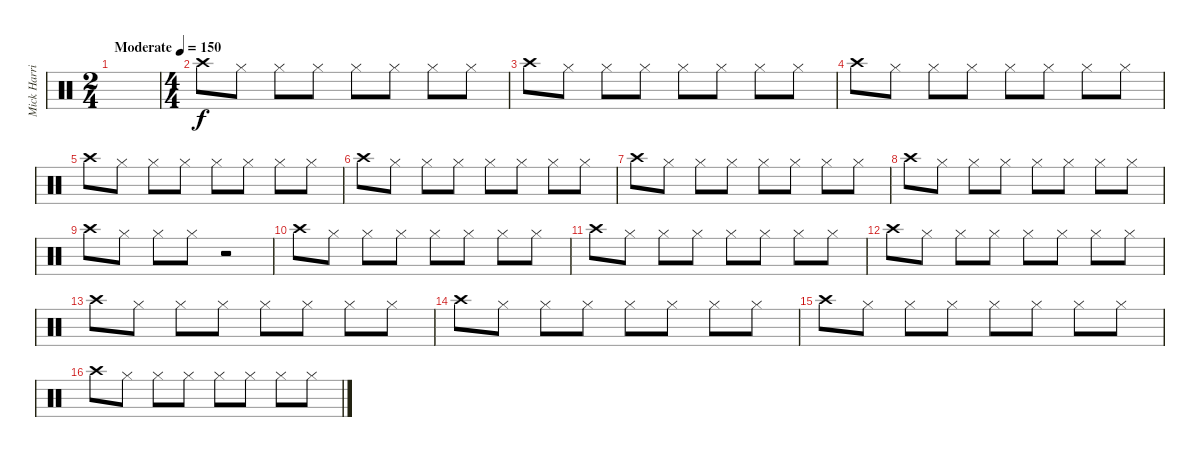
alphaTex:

\track ("Mick Harris" "Mick Harri") {instrument percussion}
\staff {score}
\articulation defaults
\ts (2 4)
\tempo (150 "Moderate")
\clef neutral
\ks c
|
\ts (4 4)
"Crash high (hit)".8{beam Down} "Hi-Hat (closed)".8{beam Down} "Hi-Hat (closed)".8{beam Down} "Hi-Hat (closed)".8{beam Down} "Hi-Hat (closed)".8{beam Down} "Hi-Hat (closed)".8{beam Down} "Hi-Hat (closed)".8{beam Down} "Hi-Hat (closed)".8{beam Down} |
"Crash high (hit)".8{beam Down} "Hi-Hat (closed)".8{beam Down} "Hi-Hat (closed)".8{beam Down} "Hi-Hat (closed)".8{beam Down} "Hi-Hat (closed)".8{beam Down} "Hi-Hat (closed)".8{beam Down} "Hi-Hat (closed)".8{beam Down} "Hi-Hat (closed)".8{beam Down} |
"Crash high (hit)".8{beam Down} "Hi-Hat (closed)".8{beam Down} "Hi-Hat (closed)".8{beam Down} "Hi-Hat (closed)".8{beam Down} "Hi-Hat (closed)".8{beam Down} "Hi-Hat (closed)".8{beam Down} "Hi-Hat (closed)".8{beam Down} "Hi-Hat (closed)".8{beam Down} |
"Crash high (hit)".8{beam Down} "Hi-Hat (closed)".8{beam Down} "Hi-Hat (closed)".8{beam Down} "Hi-Hat (closed)".8{beam Down} "Hi-Hat (closed)".8{beam Down} "Hi-Hat (closed)".8{beam Down} "Hi-Hat (closed)".8{beam Down} "Hi-Hat (closed)".8{beam Down} |
"Crash high (hit)".8{beam Down} "Hi-Hat (closed)".8{beam Down} "Hi-Hat (closed)".8{beam Down} "Hi-Hat (closed)".8{beam Down} "Hi-Hat (closed)".8{beam Down} "Hi-Hat (closed)".8{beam Down} "Hi-Hat (closed)".8{beam Down} "Hi-Hat (closed)".8{beam Down} |
"Crash high (hit)".8{beam Down} "Hi-Hat (closed)".8{beam Down} "Hi-Hat (closed)".8{beam Down} "Hi-Hat (closed)".8{beam Down} "Hi-Hat (closed)".8{beam Down} "Hi-Hat (closed)".8{beam Down} "Hi-Hat (closed)".8{beam Down} "Hi-Hat (closed)".8{beam Down} |
"Crash high (hit)".8{beam Down} "Hi-Hat (closed)".8{beam Down} "Hi-Hat (closed)".8{beam Down} "Hi-Hat (closed)".8{beam Down} "Hi-Hat (closed)".8{beam Down} "Hi-Hat (closed)".8{beam Down} "Hi-Hat (closed)".8{beam Down} "Hi-Hat (closed)".8{beam Down} |
"Crash high (hit)".8{beam Down} "Hi-Hat (closed)".8{beam Down} "Hi-Hat (closed)".8{beam Down} "Hi-Hat (closed)".8{beam Down} r.2{beam Up} |
"Crash high (hit)".8{beam Down} "Hi-Hat (closed)".8{beam Down} "Hi-Hat (closed)".8{beam Down} "Hi-Hat (closed)".8{beam Down} "Hi-Hat (closed)".8{beam Down} "Hi-Hat (closed)".8{beam Down} "Hi-Hat (closed)".8{beam Down} "Hi-Hat (closed)".8{beam Down} |
"Crash high (hit)".8{beam Down} "Hi-Hat (closed)".8{beam Down} "Hi-Hat (closed)".8{beam Down} "Hi-Hat (closed)".8{beam Down} "Hi-Hat (closed)".8{beam Down} "Hi-Hat (closed)".8{beam Down} "Hi-Hat (closed)".8{beam Down} "Hi-Hat (closed)".8{beam Down} |
"Crash high (hit)".8{beam Down} "Hi-Hat (closed)".8{beam Down} "Hi-Hat (closed)".8{beam Down} "Hi-Hat (closed)".8{beam Down} "Hi-Hat (closed)".8{beam Down} "Hi-Hat (closed)".8{beam Down} "Hi-Hat (closed)".8{beam Down} "Hi-Hat (closed)".8{beam Down} |
"Crash high (hit)".8{beam Down} "Hi-Hat (closed)".8{beam Down} "Hi-Hat (closed)".8{beam Down} "Hi-Hat (closed)".8{beam Down} "Hi-Hat (closed)".8{beam Down} "Hi-Hat (closed)".8{beam Down} "Hi-Hat (closed)".8{beam Down} "Hi-Hat (closed)".8{beam Down} |
"Crash high (hit)".8{beam Down} "Hi-Hat (closed)".8{beam Down} "Hi-Hat (closed)".8{beam Down} "Hi-Hat (closed)".8{beam Down} "Hi-Hat (closed)".8{beam Down} "Hi-Hat (closed)".8{beam Down} "Hi-Hat (closed)".8{beam Down} "Hi-Hat (closed)".8{beam Down} |
"Crash high (hit)".8{beam Down} "Hi-Hat (closed)".8{beam Down} "Hi-Hat (closed)".8{beam Down} "Hi-Hat (closed)".8{beam Down} "Hi-Hat (closed)".8{beam Down} "Hi-Hat (closed)".8{beam Down} "Hi-Hat (closed)".8{beam Down} "Hi-Hat (closed)".8{beam Down} |
"Crash high (hit)".8{beam Down} "Hi-Hat (closed)".8{beam Down} "Hi-Hat (closed)".8{beam Down} "Hi-Hat (closed)".8{beam Down} "Hi-Hat (closed)".8{beam Down} "Hi-Hat (closed)".8{beam Down} "Hi-Hat (closed)".8{beam Down} "Hi-Hat (closed)".8{beam Down}
